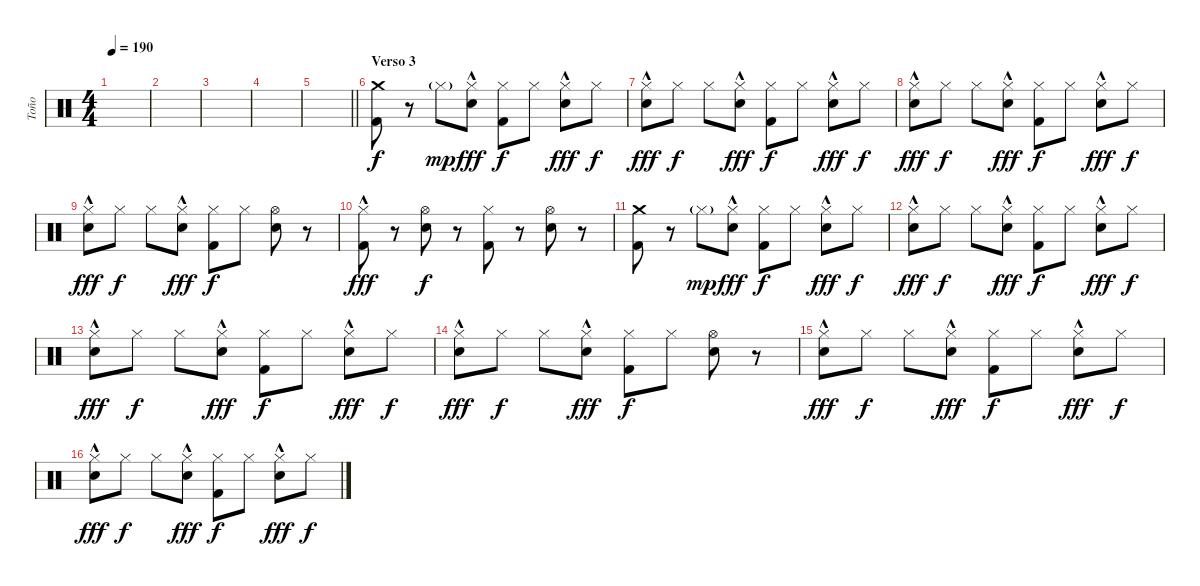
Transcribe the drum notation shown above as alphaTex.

\track ("Toño" "Toño") {instrument percussion}
\staff {score}
\articulation defaults
\ts (4 4)
\tempo 190
\clef neutral
\ks c
|
|
|
|
\barLineRight lightlight
|
\section ("" "Verso 3")
("Crash medium (hit)" "Kick (hit) 2").8 r.8 "Hi-Hat (closed)"{g}.8{dy mp} ("Hi-Hat (closed)"{hac} "Snare (hit) 2").8{dy fff} ("Hi-Hat (closed)" "Kick (hit) 2").8{dy f} "Hi-Hat (closed)".8 ("Hi-Hat (closed)"{hac} "Snare (hit) 2").8{dy fff} "Hi-Hat (closed)".8{dy f} |
("Hi-Hat (closed)"{hac} "Snare (hit) 2").8{dy fff} "Hi-Hat (closed)".8{dy f} "Hi-Hat (closed)".8 ("Hi-Hat (closed)"{hac} "Snare (hit) 2").8{dy fff} ("Hi-Hat (closed)" "Kick (hit) 2").8{dy f} "Hi-Hat (closed)".8 ("Hi-Hat (closed)"{hac} "Snare (hit) 2").8{dy fff} "Hi-Hat (closed)".8{dy f} |
("Hi-Hat (closed)"{hac} "Snare (hit) 2").8{dy fff} "Hi-Hat (closed)".8{dy f} "Hi-Hat (closed)".8 ("Hi-Hat (closed)"{hac} "Snare (hit) 2").8{dy fff} ("Hi-Hat (closed)" "Kick (hit) 2").8{dy f} "Hi-Hat (closed)".8 ("Hi-Hat (closed)"{hac} "Snare (hit) 2").8{dy fff} "Hi-Hat (closed)".8{dy f} |
("Hi-Hat (closed)"{hac} "Snare (hit) 2").8{dy fff} "Hi-Hat (closed)".8{dy f} "Hi-Hat (closed)".8 ("Hi-Hat (closed)"{hac} "Snare (hit) 2").8{dy fff} ("Hi-Hat (closed)" "Kick (hit) 2").8{dy f} "Hi-Hat (closed)".8 ("Hi-Hat (open)" "Snare (hit) 2").8 r.8 |
("Hi-Hat (closed)"{hac} "Kick (hit) 2").8{dy fff} r.8 ("Hi-Hat (open)" "Snare (hit) 2").8{dy f} r.8 ("Hi-Hat (closed)" "Kick (hit) 2").8 r.8 ("Hi-Hat (open)" "Snare (hit) 2").8 r.8 |
("Crash medium (hit)" "Kick (hit) 2").8 r.8 "Hi-Hat (closed)"{g}.8{dy mp} ("Hi-Hat (closed)"{hac} "Snare (hit) 2").8{dy fff} ("Hi-Hat (closed)" "Kick (hit) 2").8{dy f} "Hi-Hat (closed)".8 ("Hi-Hat (closed)"{hac} "Snare (hit) 2").8{dy fff} "Hi-Hat (closed)".8{dy f} |
("Hi-Hat (closed)"{hac} "Snare (hit) 2").8{dy fff} "Hi-Hat (closed)".8{dy f} "Hi-Hat (closed)".8 ("Hi-Hat (closed)"{hac} "Snare (hit) 2").8{dy fff} ("Hi-Hat (closed)" "Kick (hit) 2").8{dy f} "Hi-Hat (closed)".8 ("Hi-Hat (closed)"{hac} "Snare (hit) 2").8{dy fff} "Hi-Hat (closed)".8{dy f} |
("Hi-Hat (closed)"{hac} "Snare (hit) 2").8{dy fff} "Hi-Hat (closed)".8{dy f} "Hi-Hat (closed)".8 ("Hi-Hat (closed)"{hac} "Snare (hit) 2").8{dy fff} ("Hi-Hat (closed)" "Kick (hit) 2").8{dy f} "Hi-Hat (closed)".8 ("Hi-Hat (closed)"{hac} "Snare (hit) 2").8{dy fff} "Hi-Hat (closed)".8{dy f} |
("Hi-Hat (closed)"{hac} "Snare (hit) 2").8{dy fff} "Hi-Hat (closed)".8{dy f} "Hi-Hat (closed)".8 ("Hi-Hat (closed)"{hac} "Snare (hit) 2").8{dy fff} ("Hi-Hat (closed)" "Kick (hit) 2").8{dy f} "Hi-Hat (closed)".8 ("Hi-Hat (open)" "Snare (hit) 2").8 r.8 |
("Hi-Hat (closed)"{hac} "Snare (hit) 2").8{dy fff} "Hi-Hat (closed)".8{dy f} "Hi-Hat (closed)".8 ("Hi-Hat (closed)"{hac} "Snare (hit) 2").8{dy fff} ("Hi-Hat (closed)" "Kick (hit) 2").8{dy f} "Hi-Hat (closed)".8 ("Hi-Hat (closed)"{hac} "Snare (hit) 2").8{dy fff} "Hi-Hat (closed)".8{dy f} |
("Hi-Hat (closed)"{hac} "Snare (hit) 2").8{dy fff} "Hi-Hat (closed)".8{dy f} "Hi-Hat (closed)".8 ("Hi-Hat (closed)"{hac} "Snare (hit) 2").8{dy fff} ("Hi-Hat (closed)" "Kick (hit) 2").8{dy f} "Hi-Hat (closed)".8 ("Hi-Hat (closed)"{hac} "Snare (hit) 2").8{dy fff} "Hi-Hat (closed)".8{dy f}
